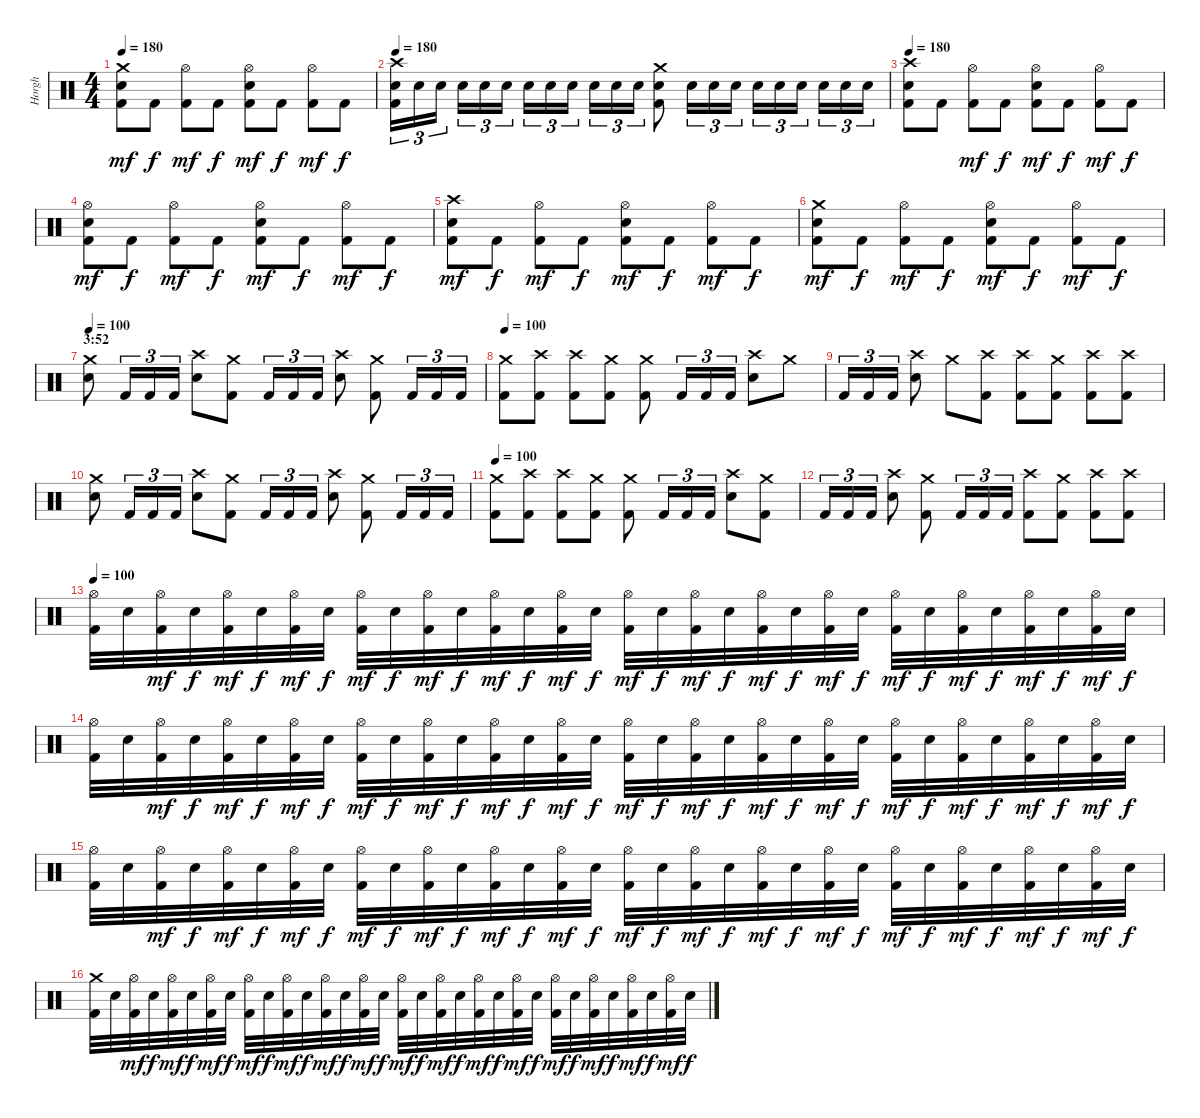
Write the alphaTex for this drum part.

\track ("Horgh" "Horgh") {instrument percussion}
\staff {score}
\articulation defaults
\ts (4 4)
\tempo 180
\clef neutral
\ks c
("Crash medium (hit)" "Electric Snare (hit)" "Kick (hit) 2").8{dy mf} "Kick (hit) 2".8{dy f} ("Hi-Hat (open)" "Kick (hit) 2").8{dy mf} "Kick (hit) 2".8{dy f} ("Hi-Hat (open)" "Electric Snare (hit)" "Kick (hit) 2").8{dy mf} "Kick (hit) 2".8{dy f} ("Hi-Hat (open)" "Kick (hit) 2").8{dy mf} "Kick (hit) 2".8{dy f} |
\tempo 180
("Crash high (hit)" "Electric Snare (hit)" "Kick (hit) 2").16{tu (3 2)} "Electric Snare (hit)".16{tu (3 2)} "Electric Snare (hit)".16{tu (3 2)} "Electric Snare (hit)".16{tu (3 2)} "Electric Snare (hit)".16{tu (3 2)} "Electric Snare (hit)".16{tu (3 2)} "Electric Snare (hit)".16{tu (3 2)} "Electric Snare (hit)".16{tu (3 2)} "Electric Snare (hit)".16{tu (3 2)} "Electric Snare (hit)".16{tu (3 2)} "Electric Snare (hit)".16{tu (3 2)} "Electric Snare (hit)".16{tu (3 2)} ("Crash medium (hit)" "Electric Snare (hit)" "Kick (hit) 2").8 "Electric Snare (hit)".16{tu (3 2)} "Electric Snare (hit)".16{tu (3 2)} "Electric Snare (hit)".16{tu (3 2)} "Electric Snare (hit)".16{tu (3 2)} "Electric Snare (hit)".16{tu (3 2)} "Electric Snare (hit)".16{tu (3 2)} "Electric Snare (hit)".16{tu (3 2)} "Electric Snare (hit)".16{tu (3 2)} "Electric Snare (hit)".16{tu (3 2)} |
\tempo 180
("Crash high (hit)" "Electric Snare (hit)" "Kick (hit) 2").8 "Kick (hit) 2".8 ("Hi-Hat (open)" "Kick (hit) 2").8{dy mf} "Kick (hit) 2".8{dy f} ("Hi-Hat (open)" "Electric Snare (hit)" "Kick (hit) 2").8{dy mf} "Kick (hit) 2".8{dy f} ("Hi-Hat (open)" "Kick (hit) 2").8{dy mf} "Kick (hit) 2".8{dy f} |
("Hi-Hat (open)" "Electric Snare (hit)" "Kick (hit) 2").8{dy mf} "Kick (hit) 2".8{dy f} ("Hi-Hat (open)" "Kick (hit) 2").8{dy mf} "Kick (hit) 2".8{dy f} ("Hi-Hat (open)" "Electric Snare (hit)" "Kick (hit) 2").8{dy mf} "Kick (hit) 2".8{dy f} ("Hi-Hat (open)" "Kick (hit) 2").8{dy mf} "Kick (hit) 2".8{dy f} |
("Crash high (hit)" "Electric Snare (hit)" "Kick (hit) 2").8{dy mf} "Kick (hit) 2".8{dy f} ("Hi-Hat (open)" "Kick (hit) 2").8{dy mf} "Kick (hit) 2".8{dy f} ("Hi-Hat (open)" "Electric Snare (hit)" "Kick (hit) 2").8{dy mf} "Kick (hit) 2".8{dy f} ("Hi-Hat (open)" "Kick (hit) 2").8{dy mf} "Kick (hit) 2".8{dy f} |
("Crash medium (hit)" "Electric Snare (hit)" "Kick (hit) 2").8{dy mf} "Kick (hit) 2".8{dy f} ("Hi-Hat (open)" "Kick (hit) 2").8{dy mf} "Kick (hit) 2".8{dy f} ("Hi-Hat (open)" "Electric Snare (hit)" "Kick (hit) 2").8{dy mf} "Kick (hit) 2".8{dy f} ("Hi-Hat (open)" "Kick (hit) 2").8{dy mf} "Kick (hit) 2".8{dy f} |
\section ("" "3:52")
\tempo 100
("Crash medium (hit)" "Electric Snare (hit)").8 "Kick (hit) 2".16{tu (3 2)} "Kick (hit) 2".16{tu (3 2)} "Kick (hit) 2".16{tu (3 2)} ("Crash high (hit)" "Electric Snare (hit)").8 ("Crash medium (hit)" "Kick (hit) 2").8 "Kick (hit) 2".16{tu (3 2)} "Kick (hit) 2".16{tu (3 2)} "Kick (hit) 2".16{tu (3 2)} ("Crash high (hit)" "Electric Snare (hit)").8 ("Crash medium (hit)" "Kick (hit) 2").8 "Kick (hit) 2".16{tu (3 2)} "Kick (hit) 2".16{tu (3 2)} "Kick (hit) 2".16{tu (3 2)} |
\tempo 100
("Crash medium (hit)" "Kick (hit) 2").8 ("Crash high (hit)" "Kick (hit) 2").8 ("Crash high (hit)" "Kick (hit) 2").8 ("Crash medium (hit)" "Kick (hit) 2").8 ("Crash medium (hit)" "Kick (hit) 2").8 "Kick (hit) 2".16{tu (3 2)} "Kick (hit) 2".16{tu (3 2)} "Kick (hit) 2".16{tu (3 2)} ("Crash high (hit)" "Electric Snare (hit)").8 "Crash medium (hit)".8 |
"Kick (hit) 2".16{tu (3 2)} "Kick (hit) 2".16{tu (3 2)} "Kick (hit) 2".16{tu (3 2)} ("Crash high (hit)" "Electric Snare (hit)").8 "Crash medium (hit)".8 ("Crash high (hit)" "Kick (hit) 2").8 ("Crash high (hit)" "Kick (hit) 2").8 ("Crash medium (hit)" "Kick (hit) 2").8 ("Crash high (hit)" "Kick (hit) 2").8 ("Crash high (hit)" "Kick (hit) 2").8 |
("Crash medium (hit)" "Electric Snare (hit)").8 "Kick (hit) 2".16{tu (3 2)} "Kick (hit) 2".16{tu (3 2)} "Kick (hit) 2".16{tu (3 2)} ("Crash high (hit)" "Electric Snare (hit)").8 ("Crash medium (hit)" "Kick (hit) 2").8 "Kick (hit) 2".16{tu (3 2)} "Kick (hit) 2".16{tu (3 2)} "Kick (hit) 2".16{tu (3 2)} ("Crash high (hit)" "Electric Snare (hit)").8 ("Crash medium (hit)" "Kick (hit) 2").8 "Kick (hit) 2".16{tu (3 2)} "Kick (hit) 2".16{tu (3 2)} "Kick (hit) 2".16{tu (3 2)} |
\tempo 100
("Crash medium (hit)" "Kick (hit) 2").8 ("Crash high (hit)" "Kick (hit) 2").8 ("Crash high (hit)" "Kick (hit) 2").8 ("Crash medium (hit)" "Kick (hit) 2").8 ("Crash medium (hit)" "Kick (hit) 2").8 "Kick (hit) 2".16{tu (3 2)} "Kick (hit) 2".16{tu (3 2)} "Kick (hit) 2".16{tu (3 2)} ("Crash high (hit)" "Electric Snare (hit)").8 ("Crash medium (hit)" "Kick (hit) 2").8 |
"Kick (hit) 2".16{tu (3 2)} "Kick (hit) 2".16{tu (3 2)} "Kick (hit) 2".16{tu (3 2)} ("Crash high (hit)" "Electric Snare (hit)").8 ("Crash medium (hit)" "Kick (hit) 2").8 "Kick (hit) 2".16{tu (3 2)} "Kick (hit) 2".16{tu (3 2)} "Kick (hit) 2".16{tu (3 2)} ("Crash high (hit)" "Kick (hit) 2").8 ("Crash medium (hit)" "Kick (hit) 2").8 ("Crash high (hit)" "Kick (hit) 2").8 ("Crash high (hit)" "Kick (hit) 2").8 |
\tempo 100
("Hi-Hat (open)" "Kick (hit) 2").32 "Electric Snare (hit)".32 ("Hi-Hat (open)" "Kick (hit) 2").32{dy mf} "Electric Snare (hit)".32{dy f} ("Hi-Hat (open)" "Kick (hit) 2").32{dy mf} "Electric Snare (hit)".32{dy f} ("Hi-Hat (open)" "Kick (hit) 2").32{dy mf} "Electric Snare (hit)".32{dy f} ("Hi-Hat (open)" "Kick (hit) 2").32{dy mf} "Electric Snare (hit)".32{dy f} ("Hi-Hat (open)" "Kick (hit) 2").32{dy mf} "Electric Snare (hit)".32{dy f} ("Hi-Hat (open)" "Kick (hit) 2").32{dy mf} "Electric Snare (hit)".32{dy f} ("Hi-Hat (open)" "Kick (hit) 2").32{dy mf} "Electric Snare (hit)".32{dy f} ("Hi-Hat (open)" "Kick (hit) 2").32{dy mf} "Electric Snare (hit)".32{dy f} ("Hi-Hat (open)" "Kick (hit) 2").32{dy mf} "Electric Snare (hit)".32{dy f} ("Hi-Hat (open)" "Kick (hit) 2").32{dy mf} "Electric Snare (hit)".32{dy f} ("Hi-Hat (open)" "Kick (hit) 2").32{dy mf} "Electric Snare (hit)".32{dy f} ("Hi-Hat (open)" "Kick (hit) 2").32{dy mf} "Electric Snare (hit)".32{dy f} ("Hi-Hat (open)" "Kick (hit) 2").32{dy mf} "Electric Snare (hit)".32{dy f} ("Hi-Hat (open)" "Kick (hit) 2").32{dy mf} "Electric Snare (hit)".32{dy f} ("Hi-Hat (open)" "Kick (hit) 2").32{dy mf} "Electric Snare (hit)".32{dy f} |
("Hi-Hat (open)" "Kick (hit) 2").32 "Electric Snare (hit)".32 ("Hi-Hat (open)" "Kick (hit) 2").32{dy mf} "Electric Snare (hit)".32{dy f} ("Hi-Hat (open)" "Kick (hit) 2").32{dy mf} "Electric Snare (hit)".32{dy f} ("Hi-Hat (open)" "Kick (hit) 2").32{dy mf} "Electric Snare (hit)".32{dy f} ("Hi-Hat (open)" "Kick (hit) 2").32{dy mf} "Electric Snare (hit)".32{dy f} ("Hi-Hat (open)" "Kick (hit) 2").32{dy mf} "Electric Snare (hit)".32{dy f} ("Hi-Hat (open)" "Kick (hit) 2").32{dy mf} "Electric Snare (hit)".32{dy f} ("Hi-Hat (open)" "Kick (hit) 2").32{dy mf} "Electric Snare (hit)".32{dy f} ("Hi-Hat (open)" "Kick (hit) 2").32{dy mf} "Electric Snare (hit)".32{dy f} ("Hi-Hat (open)" "Kick (hit) 2").32{dy mf} "Electric Snare (hit)".32{dy f} ("Hi-Hat (open)" "Kick (hit) 2").32{dy mf} "Electric Snare (hit)".32{dy f} ("Hi-Hat (open)" "Kick (hit) 2").32{dy mf} "Electric Snare (hit)".32{dy f} ("Hi-Hat (open)" "Kick (hit) 2").32{dy mf} "Electric Snare (hit)".32{dy f} ("Hi-Hat (open)" "Kick (hit) 2").32{dy mf} "Electric Snare (hit)".32{dy f} ("Hi-Hat (open)" "Kick (hit) 2").32{dy mf} "Electric Snare (hit)".32{dy f} ("Hi-Hat (open)" "Kick (hit) 2").32{dy mf} "Electric Snare (hit)".32{dy f} |
("Hi-Hat (open)" "Kick (hit) 2").32 "Electric Snare (hit)".32 ("Hi-Hat (open)" "Kick (hit) 2").32{dy mf} "Electric Snare (hit)".32{dy f} ("Hi-Hat (open)" "Kick (hit) 2").32{dy mf} "Electric Snare (hit)".32{dy f} ("Hi-Hat (open)" "Kick (hit) 2").32{dy mf} "Electric Snare (hit)".32{dy f} ("Hi-Hat (open)" "Kick (hit) 2").32{dy mf} "Electric Snare (hit)".32{dy f} ("Hi-Hat (open)" "Kick (hit) 2").32{dy mf} "Electric Snare (hit)".32{dy f} ("Hi-Hat (open)" "Kick (hit) 2").32{dy mf} "Electric Snare (hit)".32{dy f} ("Hi-Hat (open)" "Kick (hit) 2").32{dy mf} "Electric Snare (hit)".32{dy f} ("Hi-Hat (open)" "Kick (hit) 2").32{dy mf} "Electric Snare (hit)".32{dy f} ("Hi-Hat (open)" "Kick (hit) 2").32{dy mf} "Electric Snare (hit)".32{dy f} ("Hi-Hat (open)" "Kick (hit) 2").32{dy mf} "Electric Snare (hit)".32{dy f} ("Hi-Hat (open)" "Kick (hit) 2").32{dy mf} "Electric Snare (hit)".32{dy f} ("Hi-Hat (open)" "Kick (hit) 2").32{dy mf} "Electric Snare (hit)".32{dy f} ("Hi-Hat (open)" "Kick (hit) 2").32{dy mf} "Electric Snare (hit)".32{dy f} ("Hi-Hat (open)" "Kick (hit) 2").32{dy mf} "Electric Snare (hit)".32{dy f} ("Hi-Hat (open)" "Kick (hit) 2").32{dy mf} "Electric Snare (hit)".32{dy f} |
("Crash medium (hit)" "Kick (hit) 2").32 "Electric Snare (hit)".32 ("Hi-Hat (open)" "Kick (hit) 2").32{dy mf} "Electric Snare (hit)".32{dy f} ("Hi-Hat (open)" "Kick (hit) 2").32{dy mf} "Electric Snare (hit)".32{dy f} ("Hi-Hat (open)" "Kick (hit) 2").32{dy mf} "Electric Snare (hit)".32{dy f} ("Hi-Hat (open)" "Kick (hit) 2").32{dy mf} "Electric Snare (hit)".32{dy f} ("Hi-Hat (open)" "Kick (hit) 2").32{dy mf} "Electric Snare (hit)".32{dy f} ("Hi-Hat (open)" "Kick (hit) 2").32{dy mf} "Electric Snare (hit)".32{dy f} ("Hi-Hat (open)" "Kick (hit) 2").32{dy mf} "Electric Snare (hit)".32{dy f} ("Hi-Hat (open)" "Kick (hit) 2").32{dy mf} "Electric Snare (hit)".32{dy f} ("Hi-Hat (open)" "Kick (hit) 2").32{dy mf} "Electric Snare (hit)".32{dy f} ("Hi-Hat (open)" "Kick (hit) 2").32{dy mf} "Electric Snare (hit)".32{dy f} ("Hi-Hat (open)" "Kick (hit) 2").32{dy mf} "Electric Snare (hit)".32{dy f} ("Hi-Hat (open)" "Kick (hit) 2").32{dy mf} "Electric Snare (hit)".32{dy f} ("Hi-Hat (open)" "Kick (hit) 2").32{dy mf} "Electric Snare (hit)".32{dy f} ("Hi-Hat (open)" "Kick (hit) 2").32{dy mf} "Electric Snare (hit)".32{dy f} ("Hi-Hat (open)" "Kick (hit) 2").32{dy mf} "Electric Snare (hit)".32{dy f}
